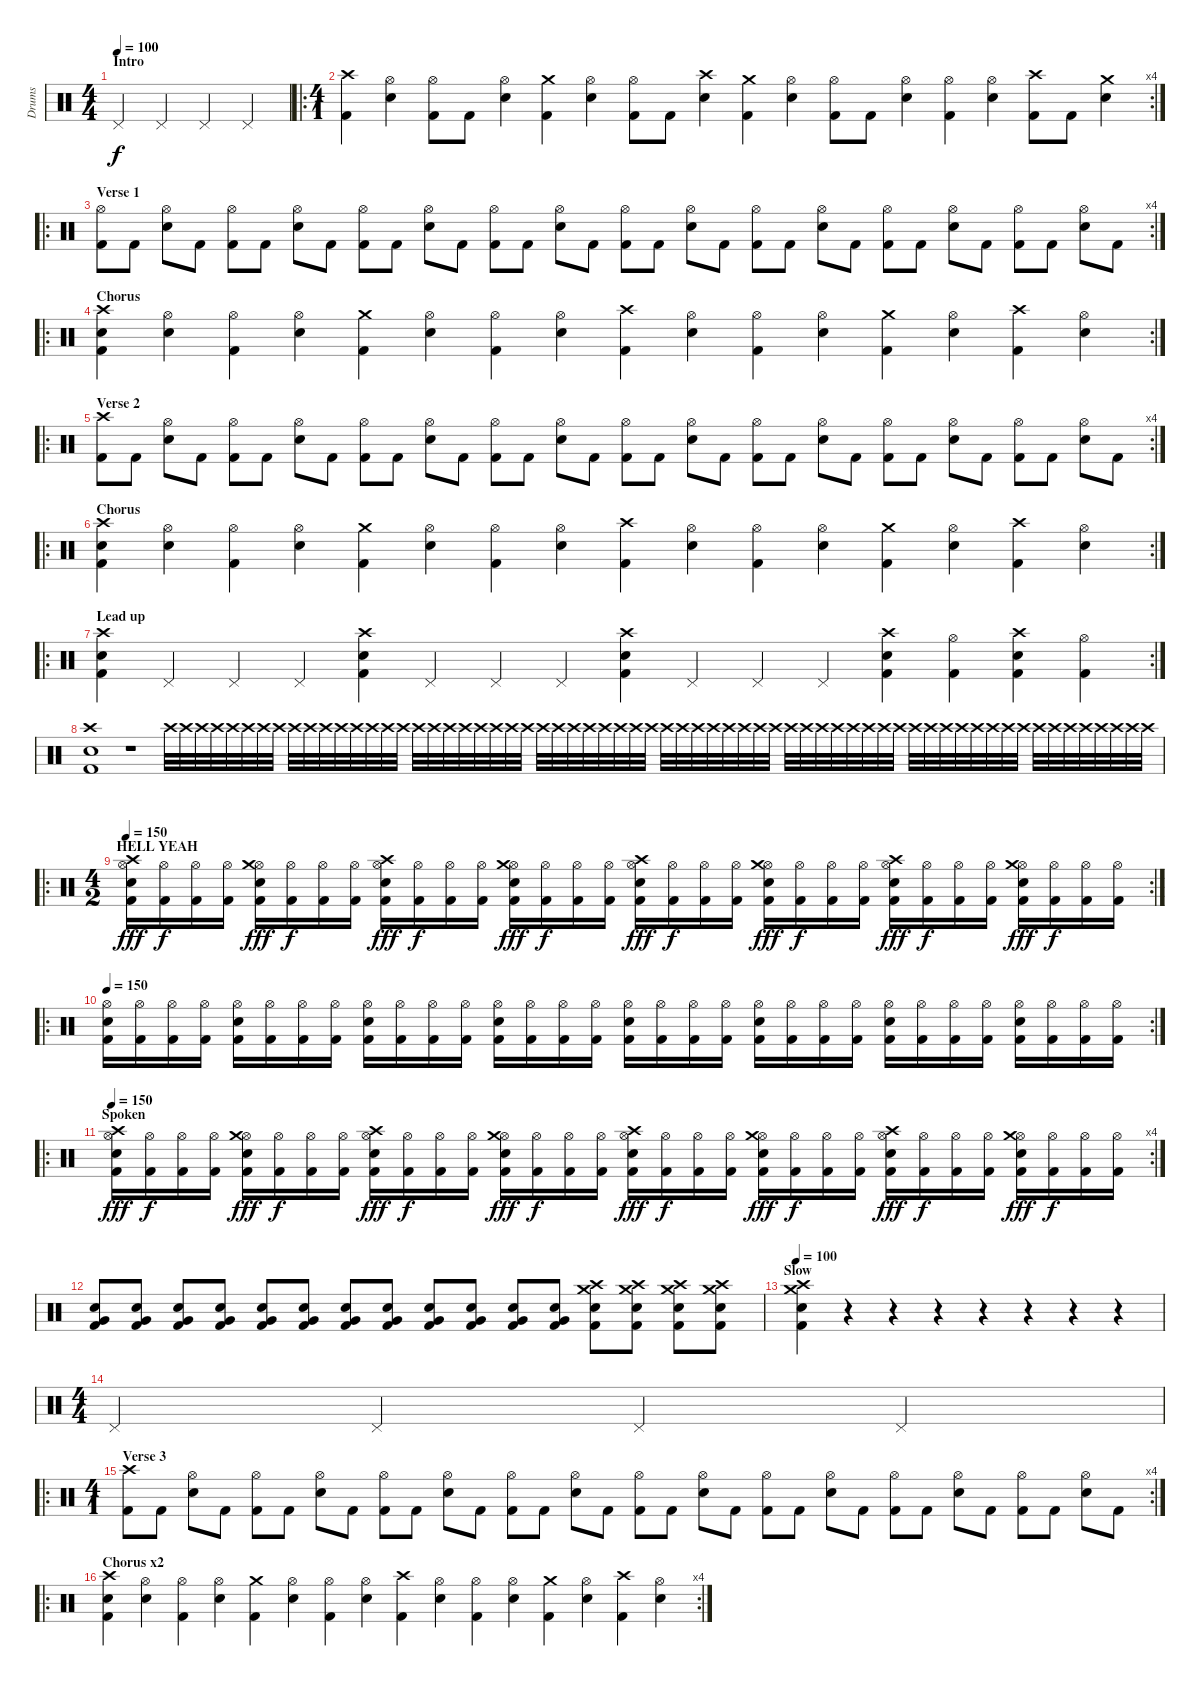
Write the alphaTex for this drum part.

\track ("Drums" "Drums") {instrument percussion}
\staff {score}
\articulation defaults
\ts (4 4)
\section ("" "Intro")
\tempo 100
\clef neutral
\ks c "Pedal Hi-Hat (hit)".4{dy f} "Pedal Hi-Hat (hit)".4 "Pedal Hi-Hat (hit)".4 "Pedal Hi-Hat (hit)".4
|
\ro
\rc 4
\ts (4 1)
("Crash high (hit)" "Kick (hit) 2").4 ("Hi-Hat (open)" "Electric Snare (hit)").4 ("Hi-Hat (open)" "Kick (hit) 2").8 "Kick (hit) 2".8 ("Hi-Hat (open)" "Electric Snare (hit)").4 ("Crash medium (hit)" "Kick (hit) 2").4 ("Hi-Hat (open)" "Electric Snare (hit)").4 ("Hi-Hat (open)" "Kick (hit) 2").8 "Kick (hit) 2".8 ("Crash high (hit)" "Electric Snare (hit)").4 ("Crash medium (hit)" "Kick (hit) 2").4 ("Hi-Hat (open)" "Electric Snare (hit)").4 ("Hi-Hat (open)" "Kick (hit) 2").8 "Kick (hit) 2".8 ("Hi-Hat (open)" "Electric Snare (hit)").4 ("Hi-Hat (open)" "Kick (hit) 2").4 ("Hi-Hat (open)" "Electric Snare (hit)").4 ("Crash high (hit)" "Kick (hit) 2").8 "Kick (hit) 2".8 ("Crash medium (hit)" "Electric Snare (hit)").4 |
\ro
\rc 4
\section ("" "Verse 1")
("Hi-Hat (open)" "Kick (hit) 2").8 "Kick (hit) 2".8 ("Hi-Hat (open)" "Electric Snare (hit)").8 "Kick (hit) 2".8 ("Hi-Hat (open)" "Kick (hit) 2").8 "Kick (hit) 2".8 ("Hi-Hat (open)" "Electric Snare (hit)").8 "Kick (hit) 2".8 ("Hi-Hat (open)" "Kick (hit) 2").8 "Kick (hit) 2".8 ("Hi-Hat (open)" "Electric Snare (hit)").8 "Kick (hit) 2".8 ("Hi-Hat (open)" "Kick (hit) 2").8 "Kick (hit) 2".8 ("Hi-Hat (open)" "Electric Snare (hit)").8 "Kick (hit) 2".8 ("Hi-Hat (open)" "Kick (hit) 2").8 "Kick (hit) 2".8 ("Hi-Hat (open)" "Electric Snare (hit)").8 "Kick (hit) 2".8 ("Hi-Hat (open)" "Kick (hit) 2").8 "Kick (hit) 2".8 ("Hi-Hat (open)" "Electric Snare (hit)").8 "Kick (hit) 2".8 ("Hi-Hat (open)" "Kick (hit) 2").8 "Kick (hit) 2".8 ("Hi-Hat (open)" "Electric Snare (hit)").8 "Kick (hit) 2".8 ("Hi-Hat (open)" "Kick (hit) 2").8 "Kick (hit) 2".8 ("Hi-Hat (open)" "Electric Snare (hit)").8 "Kick (hit) 2".8 |
\ro
\rc 2
\section ("" "Chorus")
("Crash high (hit)" "Kick (hit) 2" "Electric Snare (hit)").4 ("Hi-Hat (open)" "Electric Snare (hit)").4 ("Hi-Hat (open)" "Kick (hit) 2").4 ("Hi-Hat (open)" "Electric Snare (hit)").4 ("Crash medium (hit)" "Kick (hit) 2").4 ("Hi-Hat (open)" "Electric Snare (hit)").4 ("Hi-Hat (open)" "Kick (hit) 2").4 ("Hi-Hat (open)" "Electric Snare (hit)").4 ("Crash high (hit)" "Kick (hit) 2").4 ("Hi-Hat (open)" "Electric Snare (hit)").4 ("Hi-Hat (open)" "Kick (hit) 2").4 ("Hi-Hat (open)" "Electric Snare (hit)").4 ("Crash medium (hit)" "Kick (hit) 2").4 ("Hi-Hat (open)" "Electric Snare (hit)").4 ("Crash high (hit)" "Kick (hit) 2").4 ("Hi-Hat (open)" "Electric Snare (hit)").4 |
\ro
\rc 4
\section ("" "Verse 2")
("Crash high (hit)" "Kick (hit) 2").8 "Kick (hit) 2".8 ("Hi-Hat (open)" "Electric Snare (hit)").8 "Kick (hit) 2".8 ("Hi-Hat (open)" "Kick (hit) 2").8 "Kick (hit) 2".8 ("Hi-Hat (open)" "Electric Snare (hit)").8 "Kick (hit) 2".8 ("Hi-Hat (open)" "Kick (hit) 2").8 "Kick (hit) 2".8 ("Hi-Hat (open)" "Electric Snare (hit)").8 "Kick (hit) 2".8 ("Hi-Hat (open)" "Kick (hit) 2").8 "Kick (hit) 2".8 ("Hi-Hat (open)" "Electric Snare (hit)").8 "Kick (hit) 2".8 ("Hi-Hat (open)" "Kick (hit) 2").8 "Kick (hit) 2".8 ("Hi-Hat (open)" "Electric Snare (hit)").8 "Kick (hit) 2".8 ("Hi-Hat (open)" "Kick (hit) 2").8 "Kick (hit) 2".8 ("Hi-Hat (open)" "Electric Snare (hit)").8 "Kick (hit) 2".8 ("Hi-Hat (open)" "Kick (hit) 2").8 "Kick (hit) 2".8 ("Hi-Hat (open)" "Electric Snare (hit)").8 "Kick (hit) 2".8 ("Hi-Hat (open)" "Kick (hit) 2").8 "Kick (hit) 2".8 ("Hi-Hat (open)" "Electric Snare (hit)").8 "Kick (hit) 2".8 |
\ro
\rc 2
\section ("" "Chorus")
("Crash high (hit)" "Kick (hit) 2" "Electric Snare (hit)").4 ("Hi-Hat (open)" "Electric Snare (hit)").4 ("Hi-Hat (open)" "Kick (hit) 2").4 ("Hi-Hat (open)" "Electric Snare (hit)").4 ("Crash medium (hit)" "Kick (hit) 2").4 ("Hi-Hat (open)" "Electric Snare (hit)").4 ("Hi-Hat (open)" "Kick (hit) 2").4 ("Hi-Hat (open)" "Electric Snare (hit)").4 ("Crash high (hit)" "Kick (hit) 2").4 ("Hi-Hat (open)" "Electric Snare (hit)").4 ("Hi-Hat (open)" "Kick (hit) 2").4 ("Hi-Hat (open)" "Electric Snare (hit)").4 ("Crash medium (hit)" "Kick (hit) 2").4 ("Hi-Hat (open)" "Electric Snare (hit)").4 ("Crash high (hit)" "Kick (hit) 2").4 ("Hi-Hat (open)" "Electric Snare (hit)").4 |
\ro
\rc 2
\section ("" "Lead up")
("Crash high (hit)" "Kick (hit) 2" "Electric Snare (hit)").4 "Pedal Hi-Hat (hit)".4 "Pedal Hi-Hat (hit)".4 "Pedal Hi-Hat (hit)".4 ("Crash high (hit)" "Kick (hit) 2" "Electric Snare (hit)").4 "Pedal Hi-Hat (hit)".4 "Pedal Hi-Hat (hit)".4 "Pedal Hi-Hat (hit)".4 ("Crash high (hit)" "Kick (hit) 2" "Electric Snare (hit)").4 "Pedal Hi-Hat (hit)".4 "Pedal Hi-Hat (hit)".4 "Pedal Hi-Hat (hit)".4 ("Crash high (hit)" "Electric Snare (hit)" "Kick (hit) 2").4 ("Hi-Hat (open)" "Kick (hit) 2").4 ("Crash high (hit)" "Electric Snare (hit)" "Kick (hit) 2").4 ("Hi-Hat (open)" "Kick (hit) 2").4 |
("Crash high (hit)" "Electric Snare (hit)" "Kick (hit) 2").1 r.1 "Crash high (hit)".32 "Crash high (hit)".32 "Crash high (hit)".32 "Crash high (hit)".32 "Crash high (hit)".32 "Crash high (hit)".32 "Crash high (hit)".32 "Crash high (hit)".32 "Crash high (hit)".32 "Crash high (hit)".32 "Crash high (hit)".32 "Crash high (hit)".32 "Crash high (hit)".32 "Crash high (hit)".32 "Crash high (hit)".32 "Crash high (hit)".32 "Crash high (hit)".32 "Crash high (hit)".32 "Crash high (hit)".32 "Crash high (hit)".32 "Crash high (hit)".32 "Crash high (hit)".32 "Crash high (hit)".32 "Crash high (hit)".32 "Crash high (hit)".32 "Crash high (hit)".32 "Crash high (hit)".32 "Crash high (hit)".32 "Crash high (hit)".32 "Crash high (hit)".32 "Crash high (hit)".32 "Crash high (hit)".32 "Crash high (hit)".32 "Crash high (hit)".32 "Crash high (hit)".32 "Crash high (hit)".32 "Crash high (hit)".32 "Crash high (hit)".32 "Crash high (hit)".32 "Crash high (hit)".32 "Crash high (hit)".32 "Crash high (hit)".32 "Crash high (hit)".32 "Crash high (hit)".32 "Crash high (hit)".32 "Crash high (hit)".32 "Crash high (hit)".32 "Crash high (hit)".32 "Crash high (hit)".32 "Crash high (hit)".32 "Crash high (hit)".32 "Crash high (hit)".32 "Crash high (hit)".32 "Crash high (hit)".32 "Crash high (hit)".32 "Crash high (hit)".32 "Crash high (hit)".32 "Crash high (hit)".32 "Crash high (hit)".32 "Crash high (hit)".32 "Crash high (hit)".32 "Crash high (hit)".32 "Crash high (hit)".32 "Crash high (hit)".32 |
\ro
\rc 2
\ts (4 2)
\section ("" "HELL YEAH")
\tempo 150
("Hi-Hat (open)" "Kick (hit) 2" "Electric Snare (hit)" "Crash high (hit)").16{dy fff} ("Hi-Hat (open)" "Kick (hit) 2").16{dy f} ("Hi-Hat (open)" "Kick (hit) 2").16 ("Hi-Hat (open)" "Kick (hit) 2").16 ("Hi-Hat (open)" "Kick (hit) 2" "Electric Snare (hit)" "Crash medium (hit)").16{dy fff} ("Hi-Hat (open)" "Kick (hit) 2").16{dy f} ("Hi-Hat (open)" "Kick (hit) 2").16 ("Hi-Hat (open)" "Kick (hit) 2").16 ("Hi-Hat (open)" "Kick (hit) 2" "Electric Snare (hit)" "Crash high (hit)").16{dy fff} ("Hi-Hat (open)" "Kick (hit) 2").16{dy f} ("Hi-Hat (open)" "Kick (hit) 2").16 ("Hi-Hat (open)" "Kick (hit) 2").16 ("Hi-Hat (open)" "Kick (hit) 2" "Electric Snare (hit)" "Crash medium (hit)").16{dy fff} ("Hi-Hat (open)" "Kick (hit) 2").16{dy f} ("Hi-Hat (open)" "Kick (hit) 2").16 ("Hi-Hat (open)" "Kick (hit) 2").16 ("Hi-Hat (open)" "Kick (hit) 2" "Electric Snare (hit)" "Crash high (hit)").16{dy fff} ("Hi-Hat (open)" "Kick (hit) 2").16{dy f} ("Hi-Hat (open)" "Kick (hit) 2").16 ("Hi-Hat (open)" "Kick (hit) 2").16 ("Hi-Hat (open)" "Kick (hit) 2" "Electric Snare (hit)" "Crash medium (hit)").16{dy fff} ("Hi-Hat (open)" "Kick (hit) 2").16{dy f} ("Hi-Hat (open)" "Kick (hit) 2").16 ("Hi-Hat (open)" "Kick (hit) 2").16 ("Hi-Hat (open)" "Kick (hit) 2" "Electric Snare (hit)" "Crash high (hit)").16{dy fff} ("Hi-Hat (open)" "Kick (hit) 2").16{dy f} ("Hi-Hat (open)" "Kick (hit) 2").16 ("Hi-Hat (open)" "Kick (hit) 2").16 ("Hi-Hat (open)" "Kick (hit) 2" "Electric Snare (hit)" "Crash medium (hit)").16{dy fff} ("Hi-Hat (open)" "Kick (hit) 2").16{dy f} ("Hi-Hat (open)" "Kick (hit) 2").16 ("Hi-Hat (open)" "Kick (hit) 2").16 |
\ro
\rc 2
\tempo 150
("Hi-Hat (open)" "Kick (hit) 2" "Electric Snare (hit)").16 ("Hi-Hat (open)" "Kick (hit) 2").16 ("Hi-Hat (open)" "Kick (hit) 2").16 ("Hi-Hat (open)" "Kick (hit) 2").16 ("Hi-Hat (open)" "Kick (hit) 2" "Electric Snare (hit)").16 ("Hi-Hat (open)" "Kick (hit) 2").16 ("Hi-Hat (open)" "Kick (hit) 2").16 ("Hi-Hat (open)" "Kick (hit) 2").16 ("Hi-Hat (open)" "Kick (hit) 2" "Electric Snare (hit)").16 ("Hi-Hat (open)" "Kick (hit) 2").16 ("Hi-Hat (open)" "Kick (hit) 2").16 ("Hi-Hat (open)" "Kick (hit) 2").16 ("Hi-Hat (open)" "Kick (hit) 2" "Electric Snare (hit)").16 ("Hi-Hat (open)" "Kick (hit) 2").16 ("Hi-Hat (open)" "Kick (hit) 2").16 ("Hi-Hat (open)" "Kick (hit) 2").16 ("Hi-Hat (open)" "Kick (hit) 2" "Electric Snare (hit)").16 ("Hi-Hat (open)" "Kick (hit) 2").16 ("Hi-Hat (open)" "Kick (hit) 2").16 ("Hi-Hat (open)" "Kick (hit) 2").16 ("Hi-Hat (open)" "Kick (hit) 2" "Electric Snare (hit)").16 ("Hi-Hat (open)" "Kick (hit) 2").16 ("Hi-Hat (open)" "Kick (hit) 2").16 ("Hi-Hat (open)" "Kick (hit) 2").16 ("Hi-Hat (open)" "Kick (hit) 2" "Electric Snare (hit)").16 ("Hi-Hat (open)" "Kick (hit) 2").16 ("Hi-Hat (open)" "Kick (hit) 2").16 ("Hi-Hat (open)" "Kick (hit) 2").16 ("Hi-Hat (open)" "Kick (hit) 2" "Electric Snare (hit)").16 ("Hi-Hat (open)" "Kick (hit) 2").16 ("Hi-Hat (open)" "Kick (hit) 2").16 ("Hi-Hat (open)" "Kick (hit) 2").16 |
\ro
\rc 4
\section ("" "Spoken")
\tempo 150
("Hi-Hat (open)" "Kick (hit) 2" "Electric Snare (hit)" "Crash high (hit)").16{dy fff} ("Hi-Hat (open)" "Kick (hit) 2").16{dy f} ("Hi-Hat (open)" "Kick (hit) 2").16 ("Hi-Hat (open)" "Kick (hit) 2").16 ("Hi-Hat (open)" "Kick (hit) 2" "Electric Snare (hit)" "Crash medium (hit)").16{dy fff} ("Hi-Hat (open)" "Kick (hit) 2").16{dy f} ("Hi-Hat (open)" "Kick (hit) 2").16 ("Hi-Hat (open)" "Kick (hit) 2").16 ("Hi-Hat (open)" "Kick (hit) 2" "Electric Snare (hit)" "Crash high (hit)").16{dy fff} ("Hi-Hat (open)" "Kick (hit) 2").16{dy f} ("Hi-Hat (open)" "Kick (hit) 2").16 ("Hi-Hat (open)" "Kick (hit) 2").16 ("Hi-Hat (open)" "Kick (hit) 2" "Electric Snare (hit)" "Crash medium (hit)").16{dy fff} ("Hi-Hat (open)" "Kick (hit) 2").16{dy f} ("Hi-Hat (open)" "Kick (hit) 2").16 ("Hi-Hat (open)" "Kick (hit) 2").16 ("Hi-Hat (open)" "Kick (hit) 2" "Electric Snare (hit)" "Crash high (hit)").16{dy fff} ("Hi-Hat (open)" "Kick (hit) 2").16{dy f} ("Hi-Hat (open)" "Kick (hit) 2").16 ("Hi-Hat (open)" "Kick (hit) 2").16 ("Hi-Hat (open)" "Kick (hit) 2" "Electric Snare (hit)" "Crash medium (hit)").16{dy fff} ("Hi-Hat (open)" "Kick (hit) 2").16{dy f} ("Hi-Hat (open)" "Kick (hit) 2").16 ("Hi-Hat (open)" "Kick (hit) 2").16 ("Hi-Hat (open)" "Kick (hit) 2" "Electric Snare (hit)" "Crash high (hit)").16{dy fff} ("Hi-Hat (open)" "Kick (hit) 2").16{dy f} ("Hi-Hat (open)" "Kick (hit) 2").16 ("Hi-Hat (open)" "Kick (hit) 2").16 ("Hi-Hat (open)" "Kick (hit) 2" "Electric Snare (hit)" "Crash medium (hit)").16{dy fff} ("Hi-Hat (open)" "Kick (hit) 2").16{dy f} ("Hi-Hat (open)" "Kick (hit) 2").16 ("Hi-Hat (open)" "Kick (hit) 2").16 |
("Very Low Tom (hit)" "Electric Snare (hit)" "Kick (hit) 2").8 ("Very Low Tom (hit)" "Electric Snare (hit)" "Kick (hit) 2").8 ("Very Low Tom (hit)" "Electric Snare (hit)" "Kick (hit) 2").8 ("Very Low Tom (hit)" "Electric Snare (hit)" "Kick (hit) 2").8 ("Very Low Tom (hit)" "Electric Snare (hit)" "Kick (hit) 2").8 ("Very Low Tom (hit)" "Electric Snare (hit)" "Kick (hit) 2").8 ("Very Low Tom (hit)" "Electric Snare (hit)" "Kick (hit) 2").8 ("Very Low Tom (hit)" "Electric Snare (hit)" "Kick (hit) 2").8 ("Very Low Tom (hit)" "Electric Snare (hit)" "Kick (hit) 2").8 ("Very Low Tom (hit)" "Electric Snare (hit)" "Kick (hit) 2").8 ("Very Low Tom (hit)" "Electric Snare (hit)" "Kick (hit) 2").8 ("Very Low Tom (hit)" "Electric Snare (hit)" "Kick (hit) 2").8 ("Crash medium (hit)" "Crash high (hit)" "Electric Snare (hit)" "Kick (hit) 2").8 ("Crash medium (hit)" "Crash high (hit)" "Electric Snare (hit)" "Kick (hit) 2").8 ("Crash medium (hit)" "Crash high (hit)" "Electric Snare (hit)" "Kick (hit) 2").8 ("Crash medium (hit)" "Crash high (hit)" "Electric Snare (hit)" "Kick (hit) 2").8 |
\section ("" "Slow")
\tempo 100
("Crash medium (hit)" "Crash high (hit)" "Kick (hit) 2" "Electric Snare (hit)").4 r.4 r.4 r.4 r.4 r.4 r.4 r.4 |
\ts (4 4)
"Pedal Hi-Hat (hit)".4 "Pedal Hi-Hat (hit)".4 "Pedal Hi-Hat (hit)".4 "Pedal Hi-Hat (hit)".4 |
\ro
\rc 4
\ts (4 1)
\section ("" "Verse 3")
("Crash high (hit)" "Kick (hit) 2").8 "Kick (hit) 2".8 ("Hi-Hat (open)" "Electric Snare (hit)").8 "Kick (hit) 2".8 ("Hi-Hat (open)" "Kick (hit) 2").8 "Kick (hit) 2".8 ("Hi-Hat (open)" "Electric Snare (hit)").8 "Kick (hit) 2".8 ("Hi-Hat (open)" "Kick (hit) 2").8 "Kick (hit) 2".8 ("Hi-Hat (open)" "Electric Snare (hit)").8 "Kick (hit) 2".8 ("Hi-Hat (open)" "Kick (hit) 2").8 "Kick (hit) 2".8 ("Hi-Hat (open)" "Electric Snare (hit)").8 "Kick (hit) 2".8 ("Hi-Hat (open)" "Kick (hit) 2").8 "Kick (hit) 2".8 ("Hi-Hat (open)" "Electric Snare (hit)").8 "Kick (hit) 2".8 ("Hi-Hat (open)" "Kick (hit) 2").8 "Kick (hit) 2".8 ("Hi-Hat (open)" "Electric Snare (hit)").8 "Kick (hit) 2".8 ("Hi-Hat (open)" "Kick (hit) 2").8 "Kick (hit) 2".8 ("Hi-Hat (open)" "Electric Snare (hit)").8 "Kick (hit) 2".8 ("Hi-Hat (open)" "Kick (hit) 2").8 "Kick (hit) 2".8 ("Hi-Hat (open)" "Electric Snare (hit)").8 "Kick (hit) 2".8 |
\ro
\rc 4
\section ("" "Chorus x2")
("Crash high (hit)" "Kick (hit) 2" "Electric Snare (hit)").4 ("Hi-Hat (open)" "Electric Snare (hit)").4 ("Hi-Hat (open)" "Kick (hit) 2").4 ("Hi-Hat (open)" "Electric Snare (hit)").4 ("Crash medium (hit)" "Kick (hit) 2").4 ("Hi-Hat (open)" "Electric Snare (hit)").4 ("Hi-Hat (open)" "Kick (hit) 2").4 ("Hi-Hat (open)" "Electric Snare (hit)").4 ("Crash high (hit)" "Kick (hit) 2").4 ("Hi-Hat (open)" "Electric Snare (hit)").4 ("Hi-Hat (open)" "Kick (hit) 2").4 ("Hi-Hat (open)" "Electric Snare (hit)").4 ("Crash medium (hit)" "Kick (hit) 2").4 ("Hi-Hat (open)" "Electric Snare (hit)").4 ("Crash high (hit)" "Kick (hit) 2").4 ("Hi-Hat (open)" "Electric Snare (hit)").4
